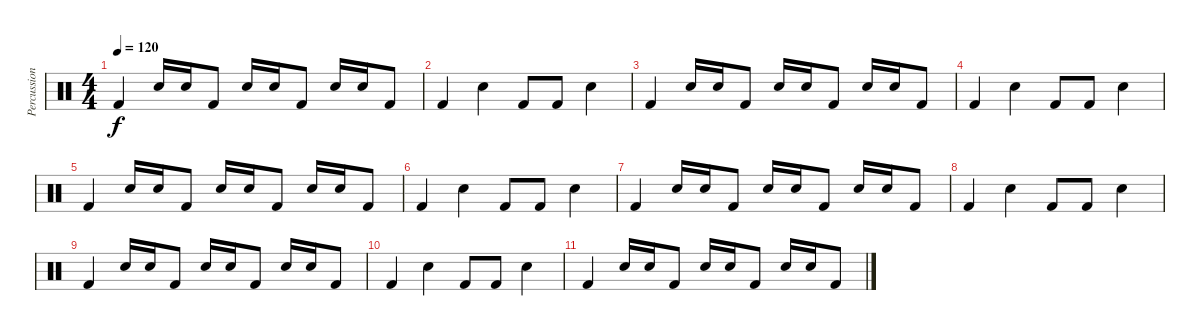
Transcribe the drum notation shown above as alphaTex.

\track ("Percussions" "Percussion") {instrument percussion}
\staff {score}
\articulation defaults
\ts (4 4)
\tempo 120
\clef neutral
\ks c "Kick (hit) 2".4{dy f} "Snare (hit) 2".16 "Snare (hit) 2".16 "Kick (hit) 2".8 "Snare (hit) 2".16 "Snare (hit) 2".16 "Kick (hit) 2".8 "Snare (hit) 2".16 "Snare (hit) 2".16 "Kick (hit) 2".8
|
"Kick (hit) 2".4 "Snare (hit) 2".4 "Kick (hit) 2".8 "Kick (hit) 2".8 "Snare (hit) 2".4 |
"Kick (hit) 2".4 "Snare (hit) 2".16 "Snare (hit) 2".16 "Kick (hit) 2".8 "Snare (hit) 2".16 "Snare (hit) 2".16 "Kick (hit) 2".8 "Snare (hit) 2".16 "Snare (hit) 2".16 "Kick (hit) 2".8 |
"Kick (hit) 2".4 "Snare (hit) 2".4 "Kick (hit) 2".8 "Kick (hit) 2".8 "Snare (hit) 2".4 |
"Kick (hit) 2".4 "Snare (hit) 2".16 "Snare (hit) 2".16 "Kick (hit) 2".8 "Snare (hit) 2".16 "Snare (hit) 2".16 "Kick (hit) 2".8 "Snare (hit) 2".16 "Snare (hit) 2".16 "Kick (hit) 2".8 |
"Kick (hit) 2".4 "Snare (hit) 2".4 "Kick (hit) 2".8 "Kick (hit) 2".8 "Snare (hit) 2".4 |
"Kick (hit) 2".4 "Snare (hit) 2".16 "Snare (hit) 2".16 "Kick (hit) 2".8 "Snare (hit) 2".16 "Snare (hit) 2".16 "Kick (hit) 2".8 "Snare (hit) 2".16 "Snare (hit) 2".16 "Kick (hit) 2".8 |
"Kick (hit) 2".4 "Snare (hit) 2".4 "Kick (hit) 2".8 "Kick (hit) 2".8 "Snare (hit) 2".4 |
"Kick (hit) 2".4 "Snare (hit) 2".16 "Snare (hit) 2".16 "Kick (hit) 2".8 "Snare (hit) 2".16 "Snare (hit) 2".16 "Kick (hit) 2".8 "Snare (hit) 2".16 "Snare (hit) 2".16 "Kick (hit) 2".8 |
"Kick (hit) 2".4 "Snare (hit) 2".4 "Kick (hit) 2".8 "Kick (hit) 2".8 "Snare (hit) 2".4 |
"Kick (hit) 2".4 "Snare (hit) 2".16 "Snare (hit) 2".16 "Kick (hit) 2".8 "Snare (hit) 2".16 "Snare (hit) 2".16 "Kick (hit) 2".8 "Snare (hit) 2".16 "Snare (hit) 2".16 "Kick (hit) 2".8
